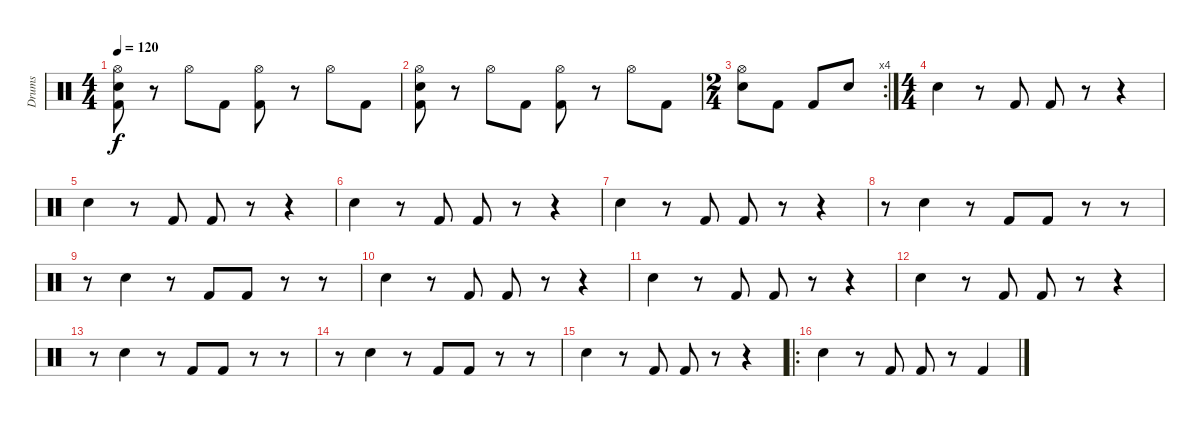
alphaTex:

\track ("Drums" "Drums") {instrument percussion}
\staff {score}
\articulation defaults
\ts (4 4)
\tempo 120
\clef neutral
\ks c
("Hi-Hat (open)" "Electric Snare (hit)" "Kick (hit) 2").8{dy f} r.8 "Hi-Hat (open)".8 "Kick (hit) 2".8 ("Hi-Hat (open)" "Kick (hit) 2").8 r.8 "Hi-Hat (open)".8 "Kick (hit) 2".8 |
("Hi-Hat (open)" "Electric Snare (hit)" "Kick (hit) 2").8 r.8 "Hi-Hat (open)".8 "Kick (hit) 2".8 ("Hi-Hat (open)" "Kick (hit) 2").8 r.8 "Hi-Hat (open)".8 "Kick (hit) 2".8 |
\rc 4
\ts (2 4)
("Hi-Hat (open)" "Electric Snare (hit)").8 "Kick (hit) 2".8 "Kick (hit) 2".8 "Electric Snare (hit)".8 |
\ts (4 4)
"Electric Snare (hit)".4 r.8 "Kick (hit) 2".8 "Kick (hit) 2".8 r.8 r.4 |
"Electric Snare (hit)".4 r.8 "Kick (hit) 2".8 "Kick (hit) 2".8 r.8 r.4 |
"Electric Snare (hit)".4 r.8 "Kick (hit) 2".8 "Kick (hit) 2".8 r.8 r.4 |
"Electric Snare (hit)".4 r.8 "Kick (hit) 2".8 "Kick (hit) 2".8 r.8 r.4 |
r.8 "Electric Snare (hit)".4 r.8 "Kick (hit) 2".8 "Kick (hit) 2".8 r.8 r.8 |
r.8 "Electric Snare (hit)".4 r.8 "Kick (hit) 2".8 "Kick (hit) 2".8 r.8 r.8 |
"Electric Snare (hit)".4 r.8 "Kick (hit) 2".8 "Kick (hit) 2".8 r.8 r.4 |
"Electric Snare (hit)".4 r.8 "Kick (hit) 2".8 "Kick (hit) 2".8 r.8 r.4 |
"Electric Snare (hit)".4 r.8 "Kick (hit) 2".8 "Kick (hit) 2".8 r.8 r.4 |
r.8 "Electric Snare (hit)".4 r.8 "Kick (hit) 2".8 "Kick (hit) 2".8 r.8 r.8 |
r.8 "Electric Snare (hit)".4 r.8 "Kick (hit) 2".8 "Kick (hit) 2".8 r.8 r.8 |
"Electric Snare (hit)".4 r.8 "Kick (hit) 2".8 "Kick (hit) 2".8 r.8 r.4 |
\ro "Electric Snare (hit)".4
r.8 "Kick (hit) 2".8 "Kick (hit) 2".8 r.8 "Kick (hit) 2".4
